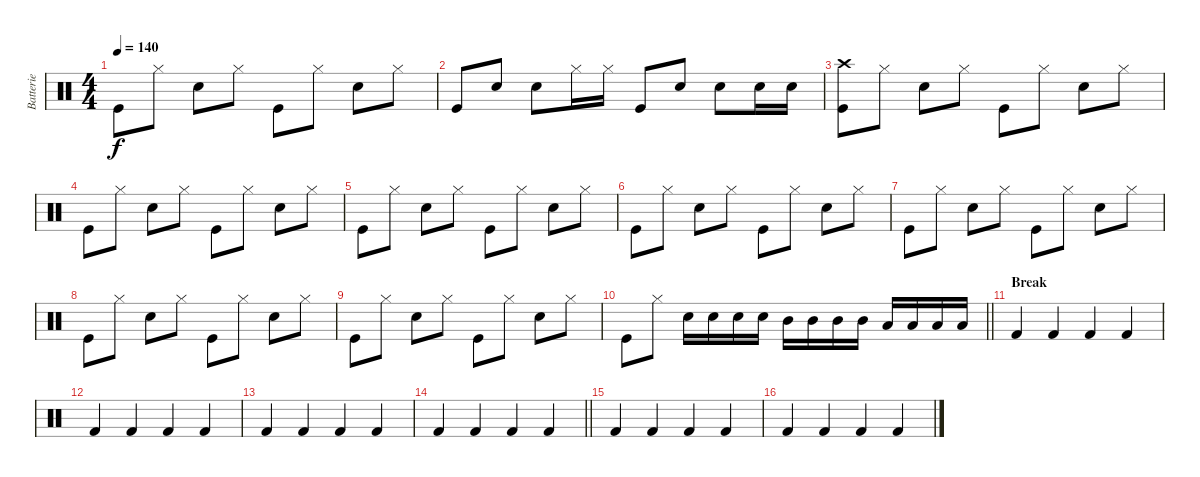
\track ("Batterie" "Batterie") {instrument percussion}
\staff {score}
\articulation defaults
\ts (4 4)
\tempo 140
\clef neutral
\ks c "Kick (hit)".8{dy f} "Hi-Hat (closed)".8 "Snare (hit) 2".8 "Hi-Hat (closed)".8 "Kick (hit)".8 "Hi-Hat (closed)".8 "Snare (hit) 2".8 "Hi-Hat (closed)".8
|
"Kick (hit)".8 "Snare (hit) 2".8 "Snare (hit) 2".8 "Hi-Hat (closed)".16 "Hi-Hat (closed)".16 "Kick (hit)".8 "Snare (hit) 2".8 "Snare (hit) 2".8 "Snare (hit) 2".16 "Snare (hit) 2".16 |
("Kick (hit)" "Crash high (hit)").8 "Hi-Hat (closed)".8 "Snare (hit) 2".8 "Hi-Hat (closed)".8 "Kick (hit)".8 "Hi-Hat (closed)".8 "Snare (hit) 2".8 "Hi-Hat (closed)".8 |
"Kick (hit)".8 "Hi-Hat (closed)".8 "Snare (hit) 2".8 "Hi-Hat (closed)".8 "Kick (hit)".8 "Hi-Hat (closed)".8 "Snare (hit) 2".8 "Hi-Hat (closed)".8 |
"Kick (hit)".8 "Hi-Hat (closed)".8 "Snare (hit) 2".8 "Hi-Hat (closed)".8 "Kick (hit)".8 "Hi-Hat (closed)".8 "Snare (hit) 2".8 "Hi-Hat (closed)".8 |
"Kick (hit)".8 "Hi-Hat (closed)".8 "Snare (hit) 2".8 "Hi-Hat (closed)".8 "Kick (hit)".8 "Hi-Hat (closed)".8 "Snare (hit) 2".8 "Hi-Hat (closed)".8 |
"Kick (hit)".8 "Hi-Hat (closed)".8 "Snare (hit) 2".8 "Hi-Hat (closed)".8 "Kick (hit)".8 "Hi-Hat (closed)".8 "Snare (hit) 2".8 "Hi-Hat (closed)".8 |
"Kick (hit)".8 "Hi-Hat (closed)".8 "Snare (hit) 2".8 "Hi-Hat (closed)".8 "Kick (hit)".8 "Hi-Hat (closed)".8 "Snare (hit) 2".8 "Hi-Hat (closed)".8 |
"Kick (hit)".8 "Hi-Hat (closed)".8 "Snare (hit) 2".8 "Hi-Hat (closed)".8 "Kick (hit)".8 "Hi-Hat (closed)".8 "Snare (hit) 2".8 "Hi-Hat (closed)".8 |
\barLineRight lightlight "Kick (hit)".8 "Hi-Hat (closed)".8 "Snare (hit) 2".16 "Snare (hit) 2".16 "Snare (hit) 2".16 "Snare (hit) 2".16 "Mid Tom (hit)".16 "Mid Tom (hit)".16 "Mid Tom (hit)".16 "Mid Tom (hit)".16 "Low Tom (hit)".16 "Low Tom (hit)".16 "Low Tom (hit)".16 "Low Tom (hit)".16
|
\section ("" "Break")
"Kick (hit) 2".4 "Kick (hit) 2".4 "Kick (hit) 2".4 "Kick (hit) 2".4 |
"Kick (hit) 2".4 "Kick (hit) 2".4 "Kick (hit) 2".4 "Kick (hit) 2".4 |
"Kick (hit) 2".4 "Kick (hit) 2".4 "Kick (hit) 2".4 "Kick (hit) 2".4 |
\barLineRight lightlight "Kick (hit) 2".4 "Kick (hit) 2".4 "Kick (hit) 2".4 "Kick (hit) 2".4
|
"Kick (hit) 2".4 "Kick (hit) 2".4 "Kick (hit) 2".4 "Kick (hit) 2".4 |
"Kick (hit) 2".4 "Kick (hit) 2".4 "Kick (hit) 2".4 "Kick (hit) 2".4
